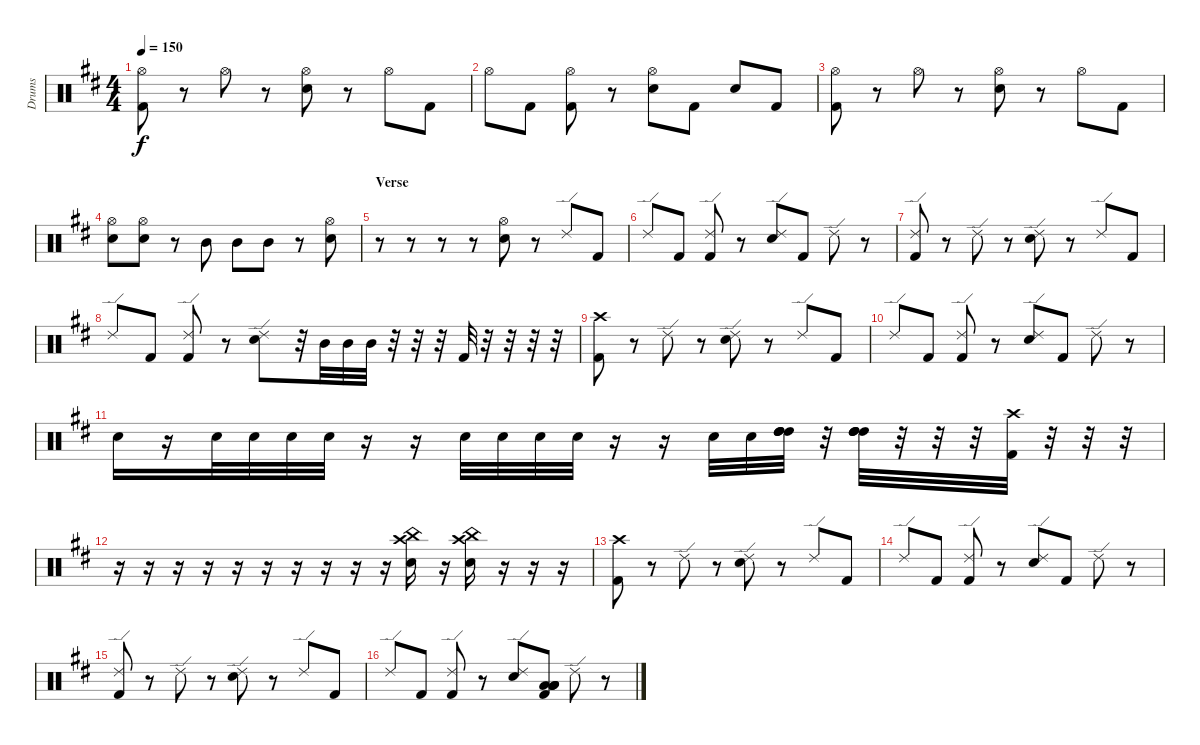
\track ("Drums" "Drums") {instrument percussion}
\staff {score}
\articulation defaults
\ts (4 4)
\tempo 150
\clef neutral
\ks d
("Hi-Hat (open)" "Kick (hit) 2").8{dy f} r.8 "Hi-Hat (open)".8 r.8 ("Hi-Hat (open)" "Snare (hit) 2").8 r.8 "Hi-Hat (open)".8 "Kick (hit) 2".8 |
"Hi-Hat (open)".8 "Kick (hit) 2".8 ("Hi-Hat (open)" "Kick (hit) 2").8 r.8 ("Hi-Hat (open)" "Snare (hit) 2").8 "Kick (hit) 2".8 "Snare (hit) 2".8 "Kick (hit) 2".8 |
("Hi-Hat (open)" "Kick (hit) 2").8 r.8 "Hi-Hat (open)".8 r.8 ("Hi-Hat (open)" "Snare (hit) 2").8 r.8 "Hi-Hat (open)".8 "Kick (hit) 2".8 |
("Hi-Hat (open)" "Snare (hit) 2").8 ("Hi-Hat (open)" "Snare (hit) 2").8 r.8 "Mid Tom (hit)".8 "Mid Tom (hit)".8 "Mid Tom (hit)".8 r.8 ("Hi-Hat (open)" "Snare (hit) 2").8 |
\section ("" "Verse")
r.8 r.8 r.8 r.8 ("Hi-Hat (open)" "Snare (hit) 2").8 r.8 "Ride (edge) 2".8 "Kick (hit) 2".8 |
"Ride (edge) 2".8 "Kick (hit) 2".8 ("Ride (edge) 2" "Kick (hit) 2").8 r.8 ("Ride (edge) 2" "Snare (hit) 2").8 "Kick (hit) 2".8 "Ride (edge) 2".8 r.8 |
("Ride (edge) 2" "Kick (hit) 2").8 r.8 "Ride (edge) 2".8 r.8 ("Ride (edge) 2" "Snare (hit) 2").8 r.8 "Ride (edge) 2".8 "Kick (hit) 2".8 |
"Ride (edge) 2".8 "Kick (hit) 2".8 ("Ride (edge) 2" "Kick (hit) 2").8 r.8 ("Ride (edge) 2" "Snare (hit) 2").8 r.32 "Mid Tom (hit)".32 "Mid Tom (hit)".32 "Mid Tom (hit)".32 r.32 r.32 r.32 "Kick (hit) 2".32 r.32 r.32 r.32 r.32 |
("Crash high (hit)" "Kick (hit) 2").8 r.8 "Ride (edge) 2".8 r.8 ("Ride (edge) 2" "Snare (hit) 2").8 r.8 "Ride (edge) 2".8 "Kick (hit) 2".8 |
"Ride (edge) 2".8 "Kick (hit) 2".8 ("Ride (edge) 2" "Kick (hit) 2").8 r.8 ("Ride (edge) 2" "Snare (hit) 2").8 "Kick (hit) 2".8 "Ride (edge) 2".8 r.8 |
"Snare (hit) 2".16 r.16 "Snare (hit) 2".32 "Snare (hit) 2".32 "Snare (hit) 2".32 "Snare (hit) 2".32 r.16 r.16 "Snare (hit) 2".32 "Snare (hit) 2".32 "Snare (hit) 2".32 "Snare (hit) 2".32 r.16 r.16 "Snare (hit) 2".32 "Snare (hit) 2".32 ("High Tom (hit)" "High Tom (hit)" "High Tom (hit)" "High Tom (hit)").32 r.32 ("High Tom (hit)" "High Tom (hit)" "High Tom (hit)" "High Tom (hit)").32 r.32 r.32 r.32 ("Crash high (hit)" "Kick (hit) 2").32 r.32 r.32 r.32 |
r.16 r.16 r.16 r.16 r.16 r.16 r.16 r.16 r.16 r.16 ("Crash high (hit)" "China (hit)" "Snare (hit) 2").16 r.16 ("Crash high (hit)" "China (hit)" "Snare (hit) 2").16 r.16 r.16 r.16 |
("Crash high (hit)" "Kick (hit) 2").8 r.8 "Ride (edge) 2".8 r.8 ("Ride (edge) 2" "Snare (hit) 2").8 r.8 "Ride (edge) 2".8 "Kick (hit) 2".8 |
"Ride (edge) 2".8 "Kick (hit) 2".8 ("Ride (edge) 2" "Kick (hit) 2").8 r.8 ("Ride (edge) 2" "Snare (hit) 2").8 "Kick (hit) 2".8 "Ride (edge) 2".8 r.8 |
("Ride (edge) 2" "Kick (hit) 2").8 r.8 "Ride (edge) 2".8 r.8 ("Ride (edge) 2" "Snare (hit) 2").8 r.8 "Ride (edge) 2".8 "Kick (hit) 2".8 |
"Ride (edge) 2".8 "Kick (hit) 2".8 ("Ride (edge) 2" "Kick (hit) 2").8 r.8 ("Ride (edge) 2" "Snare (hit) 2").8 ("Low Tom (hit)" "Low Tom (hit)" "Low Tom (hit)" "Low Tom (hit)" "Kick (hit) 2").8 "Ride (edge) 2".8 r.8
